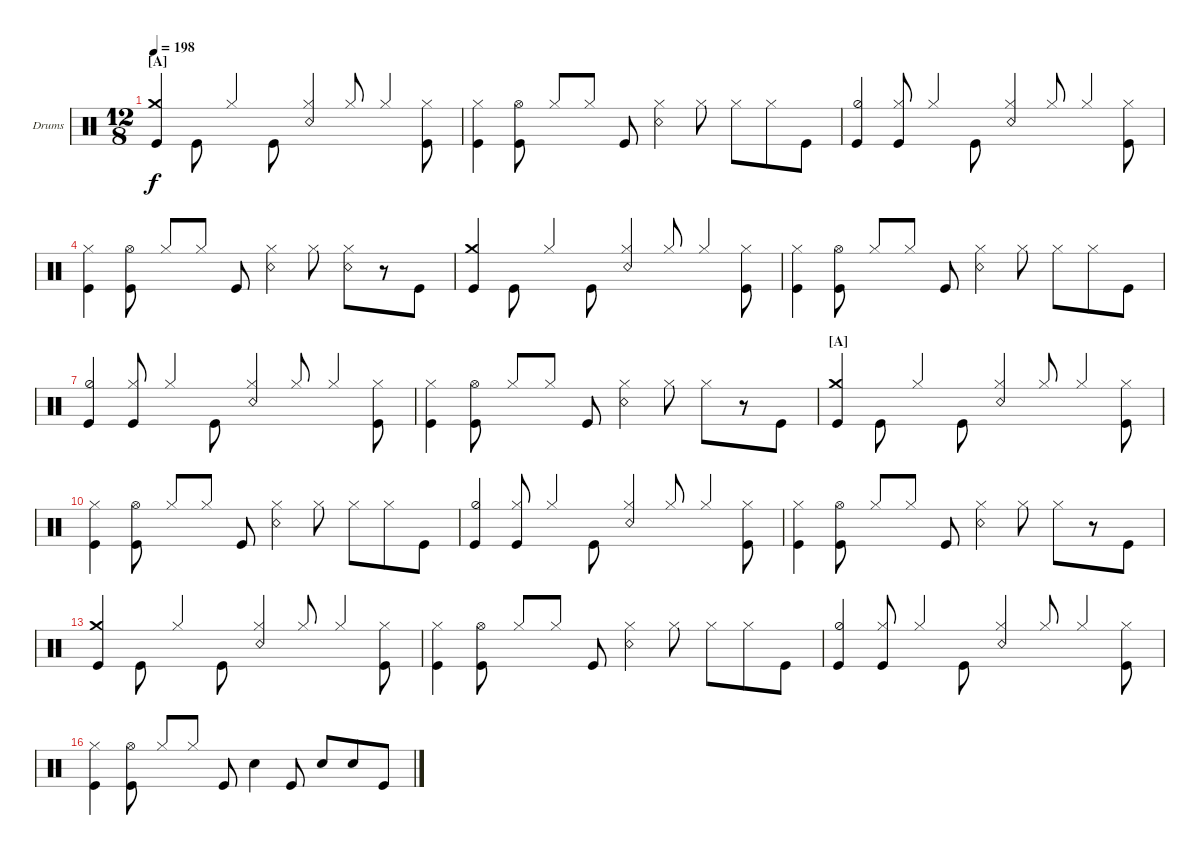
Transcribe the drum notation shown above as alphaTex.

\bracketExtendMode nobrackets
\firstSystemTrackNameOrientation horizontal
\otherSystemsTrackNameOrientation horizontal
\defaultBarNumberDisplay FirstOfSystem
\track ("Drumkit" "Drums") {instrument percussion}
\staff {score}
\articulation defaults
\ts (12 8)
\section ("A" "")
\tempo 198
\clef neutral
\scale
0.237374
\ks c
("Kick (hit)" "Crash medium (hit)").4{dy f beam invert} "Kick (hit)".8{beam invert} "Hi-Hat (closed)".4 "Kick (hit)".8{beam invert} ("Snare (rim shot)" "Hi-Hat (closed)").4 "Hi-Hat (closed)".8{beam invert} "Hi-Hat (closed)".4{beam invert} ("Kick (hit)" "Hi-Hat (closed)").8 |
\scale
0.262626 ("Kick (hit)" "Hi-Hat (closed)").4 ("Kick (hit)" "Hi-Hat (open)").8{beam split} "Hi-Hat (closed)".8 "Hi-Hat (closed)".8{beam invert beam split} "Kick (hit)".8 ("Snare (rim shot)" "Hi-Hat (closed)").4 "Hi-Hat (closed)".8{beam split} "Hi-Hat (closed)".8 "Hi-Hat (closed)".8 "Kick (hit)".8 |
\scale
0.237374 ("Kick (hit)" "Hi-Hat (half)").4{beam invert} ("Kick (hit)" "Hi-Hat (closed)").8{beam invert} "Hi-Hat (closed)".4 "Kick (hit)".8{beam invert} ("Snare (rim shot)" "Hi-Hat (closed)").4 "Hi-Hat (closed)".8{beam invert} "Hi-Hat (closed)".4{beam invert} ("Kick (hit)" "Hi-Hat (closed)").8 |
\scale
0.262626 ("Kick (hit)" "Hi-Hat (closed)").4 ("Kick (hit)" "Hi-Hat (open)").8{beam split} "Hi-Hat (closed)".8 "Hi-Hat (closed)".8{beam invert beam split} "Kick (hit)".8 ("Snare (rim shot)" "Hi-Hat (closed)").4 "Hi-Hat (closed)".8{beam split} ("Hi-Hat (closed)" "Snare (rim shot)").8 r.8 "Kick (hit)".8 |
\scale
0.237374 ("Kick (hit)" "Crash medium (hit)").4{beam invert} "Kick (hit)".8{beam invert} "Hi-Hat (closed)".4 "Kick (hit)".8{beam invert} ("Snare (rim shot)" "Hi-Hat (closed)").4 "Hi-Hat (closed)".8{beam invert} "Hi-Hat (closed)".4{beam invert} ("Kick (hit)" "Hi-Hat (closed)").8 |
\scale
0.262626 ("Kick (hit)" "Hi-Hat (closed)").4 ("Kick (hit)" "Hi-Hat (open)").8{beam split} "Hi-Hat (closed)".8 "Hi-Hat (closed)".8{beam invert beam split} "Kick (hit)".8 ("Snare (rim shot)" "Hi-Hat (closed)").4 "Hi-Hat (closed)".8{beam split} "Hi-Hat (closed)".8 "Hi-Hat (closed)".8 "Kick (hit)".8 |
\scale
0.237374 ("Kick (hit)" "Hi-Hat (half)").4{beam invert} ("Kick (hit)" "Hi-Hat (closed)").8{beam invert} "Hi-Hat (closed)".4 "Kick (hit)".8{beam invert} ("Snare (rim shot)" "Hi-Hat (closed)").4 "Hi-Hat (closed)".8{beam invert} "Hi-Hat (closed)".4{beam invert} ("Kick (hit)" "Hi-Hat (closed)").8 |
\scale
0.262626 ("Kick (hit)" "Hi-Hat (closed)").4 ("Kick (hit)" "Hi-Hat (open)").8{beam split} "Hi-Hat (closed)".8 "Hi-Hat (closed)".8{beam invert beam split} "Kick (hit)".8 ("Snare (rim shot)" "Hi-Hat (closed)").4 "Hi-Hat (closed)".8{beam split} "Hi-Hat (closed)".8 r.8 "Kick (hit)".8 |
\section ("A" "")
\scale
0.386364
\scale
0.237374 ("Kick (hit)" "Crash medium (hit)").4{beam invert} "Kick (hit)".8{beam invert} "Hi-Hat (closed)".4 "Kick (hit)".8{beam invert} ("Snare (rim shot)" "Hi-Hat (closed)").4 "Hi-Hat (closed)".8{beam invert} "Hi-Hat (closed)".4{beam invert} ("Kick (hit)" "Hi-Hat (closed)").8 |
\scale
0.11939
\scale
0.262626 ("Kick (hit)" "Hi-Hat (closed)").4 ("Kick (hit)" "Hi-Hat (open)").8{beam split} "Hi-Hat (closed)".8 "Hi-Hat (closed)".8{beam invert beam split} "Kick (hit)".8 ("Snare (rim shot)" "Hi-Hat (closed)").4 "Hi-Hat (closed)".8{beam split} "Hi-Hat (closed)".8 "Hi-Hat (closed)".8 "Kick (hit)".8 |
\scale
0.38064
\scale
0.237374 ("Kick (hit)" "Hi-Hat (half)").4{beam invert} ("Kick (hit)" "Hi-Hat (closed)").8{beam invert} "Hi-Hat (closed)".4 "Kick (hit)".8{beam invert} ("Snare (rim shot)" "Hi-Hat (closed)").4 "Hi-Hat (closed)".8{beam invert} "Hi-Hat (closed)".4{beam invert} ("Kick (hit)" "Hi-Hat (closed)").8 |
\scale
0.113636
\scale
0.262626 ("Kick (hit)" "Hi-Hat (closed)").4 ("Kick (hit)" "Hi-Hat (open)").8{beam split} "Hi-Hat (closed)".8 "Hi-Hat (closed)".8{beam invert beam split} "Kick (hit)".8 ("Snare (rim shot)" "Hi-Hat (closed)").4 "Hi-Hat (closed)".8{beam split} "Hi-Hat (closed)".8 r.8 "Kick (hit)".8 |
\scale
0.237374 ("Kick (hit)" "Crash medium (hit)").4{beam invert} "Kick (hit)".8{beam invert} "Hi-Hat (closed)".4 "Kick (hit)".8{beam invert} ("Snare (rim shot)" "Hi-Hat (closed)").4 "Hi-Hat (closed)".8{beam invert} "Hi-Hat (closed)".4{beam invert} ("Kick (hit)" "Hi-Hat (closed)").8 |
\scale
0.262626 ("Kick (hit)" "Hi-Hat (closed)").4 ("Kick (hit)" "Hi-Hat (open)").8{beam split} "Hi-Hat (closed)".8 "Hi-Hat (closed)".8{beam invert beam split} "Kick (hit)".8 ("Snare (rim shot)" "Hi-Hat (closed)").4 "Hi-Hat (closed)".8{beam split} "Hi-Hat (closed)".8 "Hi-Hat (closed)".8 "Kick (hit)".8 |
\scale
0.237374 ("Kick (hit)" "Hi-Hat (half)").4{beam invert} ("Kick (hit)" "Hi-Hat (closed)").8{beam invert} "Hi-Hat (closed)".4 "Kick (hit)".8{beam invert} ("Snare (rim shot)" "Hi-Hat (closed)").4 "Hi-Hat (closed)".8{beam invert} "Hi-Hat (closed)".4{beam invert} ("Kick (hit)" "Hi-Hat (closed)").8 |
\scale
0.262626 ("Kick (hit)" "Hi-Hat (closed)").4 ("Kick (hit)" "Hi-Hat (open)").8{beam split} "Hi-Hat (closed)".8 "Hi-Hat (closed)".8{beam invert beam split} "Kick (hit)".8 "Snare (hit) 2".4 "Kick (hit)".8{beam split} "Snare (hit) 2".8 "Snare (hit) 2".8 "Kick (hit)".8
